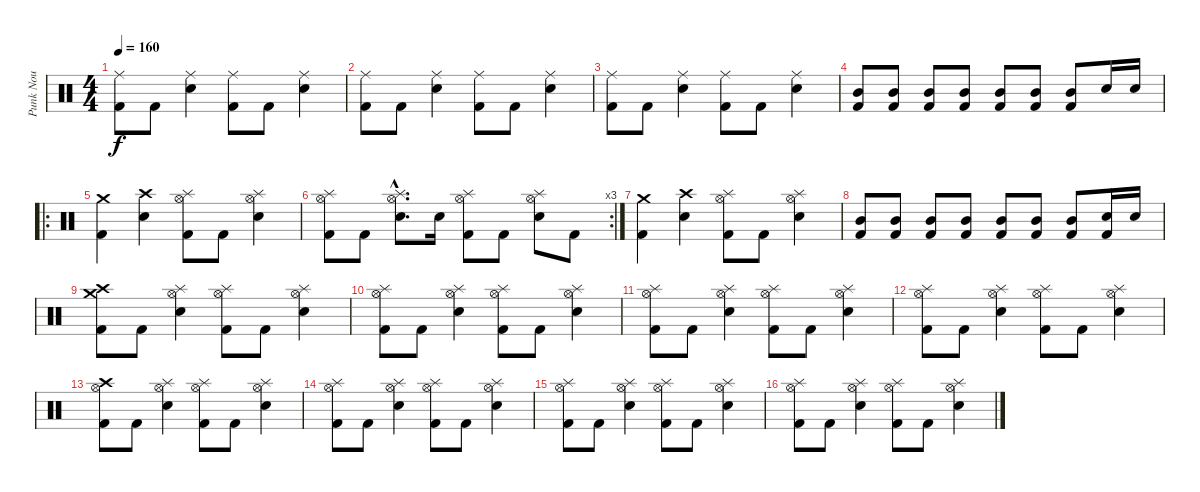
\track ("Punk Nou" "Punk Nou") {instrument percussion}
\staff {score}
\articulation defaults
\ts (4 4)
\tempo 160
\clef neutral
\ks c
("Ride (middle)" "Kick (hit) 2").8{dy f} "Kick (hit) 2".8 ("Ride (middle)" "Electric Snare (hit)").4 ("Ride (middle)" "Kick (hit) 2").8 "Kick (hit) 2".8 ("Ride (middle)" "Electric Snare (hit)").4 |
("Ride (middle)" "Kick (hit) 2").8 "Kick (hit) 2".8 ("Ride (middle)" "Electric Snare (hit)").4 ("Ride (middle)" "Kick (hit) 2").8 "Kick (hit) 2".8 ("Ride (middle)" "Electric Snare (hit)").4 |
("Ride (middle)" "Kick (hit) 2").8 "Kick (hit) 2".8 ("Ride (middle)" "Electric Snare (hit)").4 ("Ride (middle)" "Kick (hit) 2").8 "Kick (hit) 2".8 ("Ride (middle)" "Electric Snare (hit)").4 |
("Mid Tom (hit)" "Kick (hit) 2").8 ("Mid Tom (hit)" "Kick (hit) 2").8 ("Mid Tom (hit)" "Kick (hit) 2").8 ("Mid Tom (hit)" "Kick (hit) 2").8 ("Mid Tom (hit)" "Kick (hit) 2").8 ("Mid Tom (hit)" "Kick (hit) 2").8 ("Mid Tom (hit)" "Kick (hit) 2").8 "Electric Snare (hit)".16 "Electric Snare (hit)".16 |
\ro
("Crash medium (hit)" "Kick (hit) 2").4 ("Crash high (hit)" "Electric Snare (hit)").4 ("Splash (hit)" "Hi-Hat (open)" "Kick (hit) 2").8 "Kick (hit) 2".8 ("Splash (hit)" "Hi-Hat (open)" "Electric Snare (hit)").4 |
\rc 3
("Splash (hit)" "Hi-Hat (open)" "Kick (hit) 2").8 "Kick (hit) 2".8 ("Splash (hit)"{hac} "Hi-Hat (open)"{hac} "Electric Snare (hit)"{hac}).8{d} "Electric Snare (hit)".16 ("Splash (hit)" "Hi-Hat (open)" "Kick (hit) 2").8 "Kick (hit) 2".8 ("Splash (hit)" "Hi-Hat (open)" "Electric Snare (hit)").8 "Kick (hit) 2".8 |
("Crash medium (hit)" "Kick (hit) 2").4 ("Crash high (hit)" "Electric Snare (hit)").4 ("Splash (hit)" "Hi-Hat (open)" "Kick (hit) 2").8 "Kick (hit) 2".8 ("Splash (hit)" "Hi-Hat (open)" "Electric Snare (hit)").4 |
("Mid Tom (hit)" "Kick (hit) 2").8 ("Mid Tom (hit)" "Kick (hit) 2").8 ("Mid Tom (hit)" "Kick (hit) 2").8 ("Mid Tom (hit)" "Kick (hit) 2").8 ("Mid Tom (hit)" "Kick (hit) 2").8 ("Mid Tom (hit)" "Kick (hit) 2").8 ("Mid Tom (hit)" "Kick (hit) 2").8 ("Electric Snare (hit)" "Kick (hit) 2").16 "Electric Snare (hit)".16 |
("Crash high (hit)" "Crash medium (hit)" "Kick (hit) 2").8 "Kick (hit) 2".8 ("Splash (hit)" "Hi-Hat (open)" "Electric Snare (hit)").4 ("Splash (hit)" "Hi-Hat (open)" "Kick (hit) 2").8 "Kick (hit) 2".8 ("Splash (hit)" "Hi-Hat (open)" "Electric Snare (hit)").4 |
("Splash (hit)" "Hi-Hat (open)" "Kick (hit) 2").8 "Kick (hit) 2".8 ("Splash (hit)" "Hi-Hat (open)" "Electric Snare (hit)").4 ("Splash (hit)" "Hi-Hat (open)" "Kick (hit) 2").8 "Kick (hit) 2".8 ("Splash (hit)" "Hi-Hat (open)" "Electric Snare (hit)").4 |
("Splash (hit)" "Hi-Hat (open)" "Kick (hit) 2").8 "Kick (hit) 2".8 ("Splash (hit)" "Hi-Hat (open)" "Electric Snare (hit)").4 ("Splash (hit)" "Hi-Hat (open)" "Kick (hit) 2").8 "Kick (hit) 2".8 ("Splash (hit)" "Hi-Hat (open)" "Electric Snare (hit)").4 |
("Splash (hit)" "Hi-Hat (open)" "Kick (hit) 2").8 "Kick (hit) 2".8 ("Splash (hit)" "Hi-Hat (open)" "Electric Snare (hit)").4 ("Splash (hit)" "Hi-Hat (open)" "Kick (hit) 2").8 "Kick (hit) 2".8 ("Splash (hit)" "Hi-Hat (open)" "Electric Snare (hit)").4 |
("Crash high (hit)" "Hi-Hat (open)" "Kick (hit) 2").8 "Kick (hit) 2".8 ("Splash (hit)" "Hi-Hat (open)" "Electric Snare (hit)").4 ("Splash (hit)" "Hi-Hat (open)" "Kick (hit) 2").8 "Kick (hit) 2".8 ("Splash (hit)" "Hi-Hat (open)" "Electric Snare (hit)").4 |
("Splash (hit)" "Hi-Hat (open)" "Kick (hit) 2").8 "Kick (hit) 2".8 ("Splash (hit)" "Hi-Hat (open)" "Electric Snare (hit)").4 ("Splash (hit)" "Hi-Hat (open)" "Kick (hit) 2").8 "Kick (hit) 2".8 ("Splash (hit)" "Hi-Hat (open)" "Electric Snare (hit)").4 |
("Splash (hit)" "Hi-Hat (open)" "Kick (hit) 2").8 "Kick (hit) 2".8 ("Splash (hit)" "Hi-Hat (open)" "Electric Snare (hit)").4 ("Splash (hit)" "Hi-Hat (open)" "Kick (hit) 2").8 "Kick (hit) 2".8 ("Splash (hit)" "Hi-Hat (open)" "Electric Snare (hit)").4 |
("Splash (hit)" "Hi-Hat (open)" "Kick (hit) 2").8 "Kick (hit) 2".8 ("Splash (hit)" "Hi-Hat (open)" "Electric Snare (hit)").4 ("Splash (hit)" "Hi-Hat (open)" "Kick (hit) 2").8 "Kick (hit) 2".8 ("Splash (hit)" "Hi-Hat (open)" "Electric Snare (hit)").4
